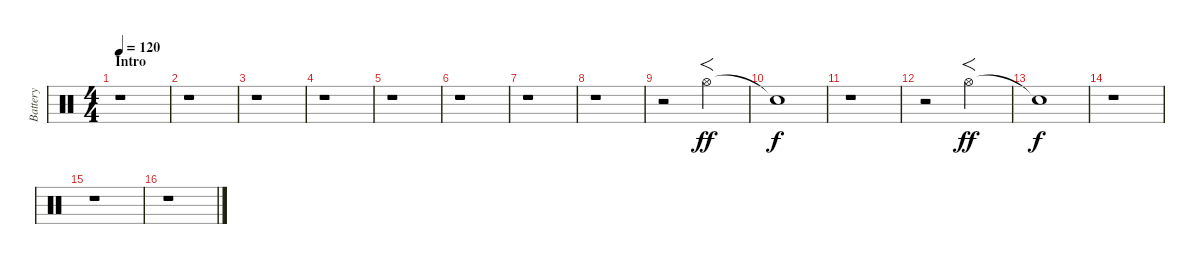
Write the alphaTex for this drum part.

\track ("Battery" "Battery") {instrument percussion}
\staff {score}
\articulation defaults
\ts (4 4)
\section ("" "Intro")
\tempo 120
\clef neutral
\ks c
r.1{dy ff} |
r.1 |
r.1 |
r.1 |
r.1 |
r.1 |
r.1 |
r.1 |
r.2 "Hi-Hat (open)".2{f} |
"Snare (hit)"{t}.1{dy f} |
r.1 |
r.2 "Hi-Hat (open)".2{f dy ff} |
"Snare (hit)"{t}.1{dy f} |
r.1 |
r.1 |
r.1
